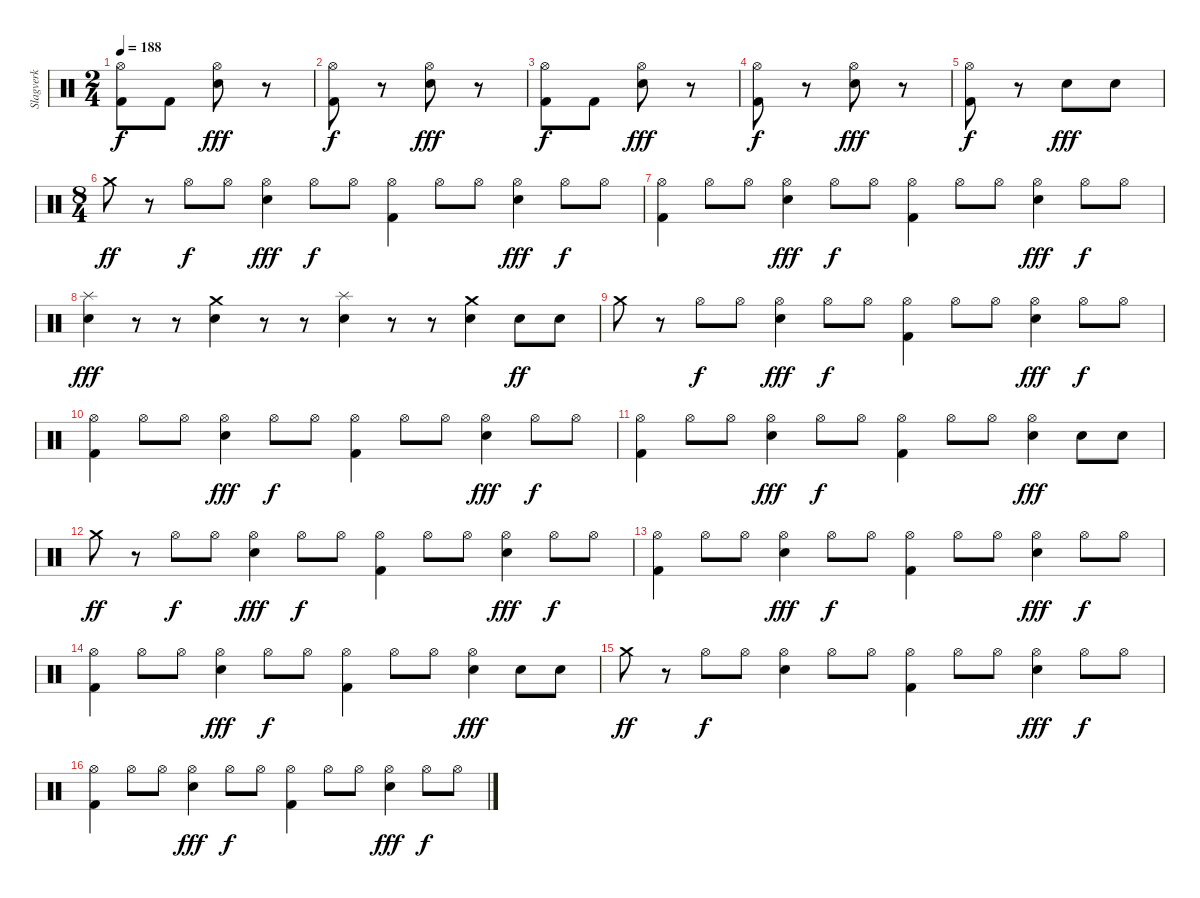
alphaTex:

\track ("Slagverk" "Slagverk") {instrument percussion}
\staff {score}
\articulation defaults
\ts (2 4)
\tempo 188
\clef neutral
\ks c
("Hi-Hat (open)" "Kick (hit) 2").8{dy f} "Kick (hit) 2".8 ("Hi-Hat (open)" "Snare (hit) 2").8{dy fff} r.8 |
("Hi-Hat (open)" "Kick (hit) 2").8{dy f} r.8 ("Hi-Hat (open)" "Snare (hit) 2").8{dy fff} r.8 |
("Hi-Hat (open)" "Kick (hit) 2").8{dy f} "Kick (hit) 2".8 ("Hi-Hat (open)" "Snare (hit) 2").8{dy fff} r.8 |
("Hi-Hat (open)" "Kick (hit) 2").8{dy f} r.8 ("Hi-Hat (open)" "Snare (hit) 2").8{dy fff} r.8 |
("Hi-Hat (open)" "Kick (hit) 2").8{dy f} r.8 "Snare (hit) 2".8{dy fff} "Snare (hit) 2".8 |
\ts (8 4)
"Crash medium (hit)".8{dy ff} r.8 "Hi-Hat (open)".8{dy f} "Hi-Hat (open)".8 ("Hi-Hat (open)" "Snare (hit) 2").4{dy fff} "Hi-Hat (open)".8{dy f} "Hi-Hat (open)".8 ("Hi-Hat (open)" "Kick (hit) 2").4 "Hi-Hat (open)".8 "Hi-Hat (open)".8 ("Hi-Hat (open)" "Snare (hit) 2").4{dy fff} "Hi-Hat (open)".8{dy f} "Hi-Hat (open)".8 |
("Hi-Hat (open)" "Kick (hit) 2").4 "Hi-Hat (open)".8 "Hi-Hat (open)".8 ("Hi-Hat (open)" "Snare (hit) 2").4{dy fff} "Hi-Hat (open)".8{dy f} "Hi-Hat (open)".8 ("Hi-Hat (open)" "Kick (hit) 2").4 "Hi-Hat (open)".8 "Hi-Hat (open)".8 ("Hi-Hat (open)" "Snare (hit) 2").4{dy fff} "Hi-Hat (open)".8{dy f} "Hi-Hat (open)".8 |
("Splash (hit)" "Snare (hit) 2").4{dy fff} r.8 r.8 ("Crash medium (hit)" "Snare (hit) 2").4 r.8 r.8 ("Splash (hit)" "Snare (hit) 2").4 r.8 r.8 ("Crash medium (hit)" "Snare (hit) 2").4 "Snare (hit) 2".8{dy ff} "Snare (hit) 2".8 |
"Crash medium (hit)".8 r.8 "Hi-Hat (open)".8{dy f} "Hi-Hat (open)".8 ("Hi-Hat (open)" "Snare (hit) 2").4{dy fff} "Hi-Hat (open)".8{dy f} "Hi-Hat (open)".8 ("Hi-Hat (open)" "Kick (hit) 2").4 "Hi-Hat (open)".8 "Hi-Hat (open)".8 ("Hi-Hat (open)" "Snare (hit) 2").4{dy fff} "Hi-Hat (open)".8{dy f} "Hi-Hat (open)".8 |
("Hi-Hat (open)" "Kick (hit) 2").4 "Hi-Hat (open)".8 "Hi-Hat (open)".8 ("Hi-Hat (open)" "Snare (hit) 2").4{dy fff} "Hi-Hat (open)".8{dy f} "Hi-Hat (open)".8 ("Hi-Hat (open)" "Kick (hit) 2").4 "Hi-Hat (open)".8 "Hi-Hat (open)".8 ("Hi-Hat (open)" "Snare (hit) 2").4{dy fff} "Hi-Hat (open)".8{dy f} "Hi-Hat (open)".8 |
("Hi-Hat (open)" "Kick (hit) 2").4 "Hi-Hat (open)".8 "Hi-Hat (open)".8 ("Hi-Hat (open)" "Snare (hit) 2").4{dy fff} "Hi-Hat (open)".8{dy f} "Hi-Hat (open)".8 ("Hi-Hat (open)" "Kick (hit) 2").4 "Hi-Hat (open)".8 "Hi-Hat (open)".8 ("Hi-Hat (open)" "Snare (hit) 2").4{dy fff} "Snare (hit) 2".8 "Snare (hit) 2".8 |
"Crash medium (hit)".8{dy ff} r.8 "Hi-Hat (open)".8{dy f} "Hi-Hat (open)".8 ("Hi-Hat (open)" "Snare (hit) 2").4{dy fff} "Hi-Hat (open)".8{dy f} "Hi-Hat (open)".8 ("Hi-Hat (open)" "Kick (hit) 2").4 "Hi-Hat (open)".8 "Hi-Hat (open)".8 ("Hi-Hat (open)" "Snare (hit) 2").4{dy fff} "Hi-Hat (open)".8{dy f} "Hi-Hat (open)".8 |
("Hi-Hat (open)" "Kick (hit) 2").4 "Hi-Hat (open)".8 "Hi-Hat (open)".8 ("Hi-Hat (open)" "Snare (hit) 2").4{dy fff} "Hi-Hat (open)".8{dy f} "Hi-Hat (open)".8 ("Hi-Hat (open)" "Kick (hit) 2").4 "Hi-Hat (open)".8 "Hi-Hat (open)".8 ("Hi-Hat (open)" "Snare (hit) 2").4{dy fff} "Hi-Hat (open)".8{dy f} "Hi-Hat (open)".8 |
("Hi-Hat (open)" "Kick (hit) 2").4 "Hi-Hat (open)".8 "Hi-Hat (open)".8 ("Hi-Hat (open)" "Snare (hit) 2").4{dy fff} "Hi-Hat (open)".8{dy f} "Hi-Hat (open)".8 ("Hi-Hat (open)" "Kick (hit) 2").4 "Hi-Hat (open)".8 "Hi-Hat (open)".8 ("Hi-Hat (open)" "Snare (hit) 2").4{dy fff} "Snare (hit) 2".8 "Snare (hit) 2".8 |
"Crash medium (hit)".8{dy ff} r.8 "Hi-Hat (open)".8{dy f} "Hi-Hat (open)".8 ("Hi-Hat (open)" "Snare (hit) 2").4 "Hi-Hat (open)".8 "Hi-Hat (open)".8 ("Hi-Hat (open)" "Kick (hit) 2").4 "Hi-Hat (open)".8 "Hi-Hat (open)".8 ("Hi-Hat (open)" "Snare (hit) 2").4{dy fff} "Hi-Hat (open)".8{dy f} "Hi-Hat (open)".8 |
("Hi-Hat (open)" "Kick (hit) 2").4 "Hi-Hat (open)".8 "Hi-Hat (open)".8 ("Hi-Hat (open)" "Snare (hit) 2").4{dy fff} "Hi-Hat (open)".8{dy f} "Hi-Hat (open)".8 ("Hi-Hat (open)" "Kick (hit) 2").4 "Hi-Hat (open)".8 "Hi-Hat (open)".8 ("Hi-Hat (open)" "Snare (hit) 2").4{dy fff} "Hi-Hat (open)".8{dy f} "Hi-Hat (open)".8
